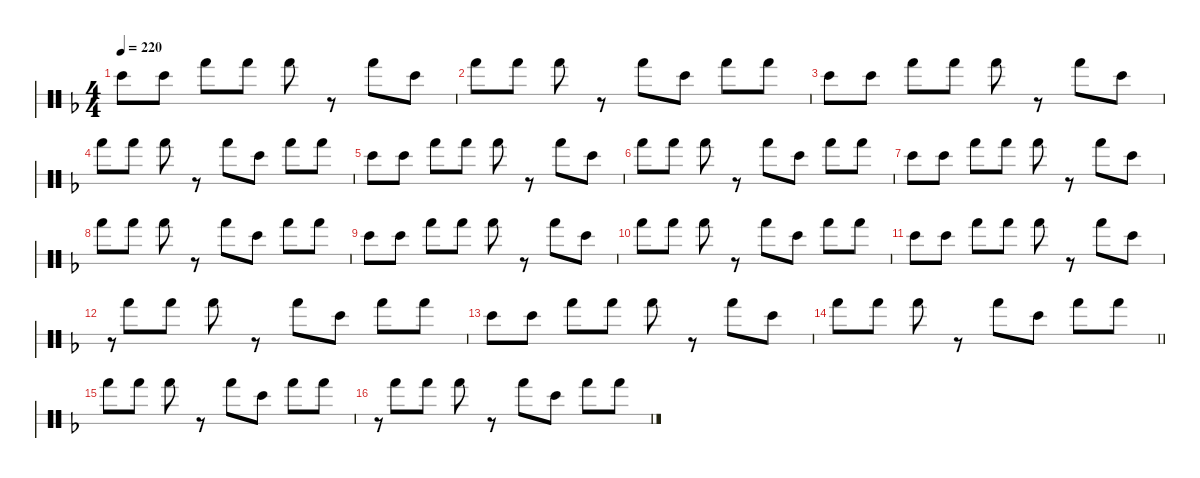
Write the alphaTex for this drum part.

\hideDynamics
\bracketExtendMode nobrackets
\singleTrackTrackNamePolicy hidden
\multiTrackTrackNamePolicy hidden
\firstSystemTrackNameMode fullname
\firstSystemTrackNameOrientation horizontal
\otherSystemsTrackNameOrientation horizontal
\track ("Bongos" "bngKit") {instrument percussion}
\staff {score 2}
\articulation defaults
\ts (4 4)
\tempo 220
\clef neutral
\ks dminor "Bongo High (hit)"{acc forcenatural}.8{dy mp} "Bongo High (hit)"{acc forcenatural}.8 "Hand (hit)"{acc forcenatural}.8{dy p} "Hand (hit)"{acc forcenatural}.8 "Hand (hit)"{acc forcenatural}.8{dy mp}
r.8 "Hand (hit)"{acc forcenatural}.8 "Bongo High (hit)"{acc forcenatural}.8 |
"Hand (hit)"{acc forcenatural}.8{dy p} "Hand (hit)"{acc forcenatural}.8 "Hand (hit)"{acc forcenatural}.8{dy mp} r.8 "Hand (hit)"{acc forcenatural}.8 "Bongo High (hit)"{acc forcenatural}.8 "Hand (hit)"{acc forcenatural}.8{dy p} "Hand (hit)"{acc forcenatural}.8 |
"Bongo High (hit)"{acc forcenatural}.8{dy mp} "Bongo High (hit)"{acc forcenatural}.8 "Hand (hit)"{acc forcenatural}.8{dy p} "Hand (hit)"{acc forcenatural}.8 "Hand (hit)"{acc forcenatural}.8{dy mp} r.8 "Hand (hit)"{acc forcenatural}.8 "Bongo High (hit)"{acc forcenatural}.8 |
"Hand (hit)"{acc forcenatural}.8{dy p} "Hand (hit)"{acc forcenatural}.8 "Hand (hit)"{acc forcenatural}.8{dy mp} r.8 "Hand (hit)"{acc forcenatural}.8 "Bongo High (hit)"{acc forcenatural}.8 "Hand (hit)"{acc forcenatural}.8{dy p} "Hand (hit)"{acc forcenatural}.8 |
"Bongo High (hit)"{acc forcenatural}.8{dy mp} "Bongo High (hit)"{acc forcenatural}.8 "Hand (hit)"{acc forcenatural}.8{dy p} "Hand (hit)"{acc forcenatural}.8 "Hand (hit)"{acc forcenatural}.8{dy mp} r.8 "Hand (hit)"{acc forcenatural}.8 "Bongo High (hit)"{acc forcenatural}.8 |
"Hand (hit)"{acc forcenatural}.8{dy p} "Hand (hit)"{acc forcenatural}.8 "Hand (hit)"{acc forcenatural}.8{dy mp} r.8 "Hand (hit)"{acc forcenatural}.8 "Bongo High (hit)"{acc forcenatural}.8 "Hand (hit)"{acc forcenatural}.8{dy p} "Hand (hit)"{acc forcenatural}.8 |
"Bongo High (hit)"{acc forcenatural}.8{dy mp} "Bongo High (hit)"{acc forcenatural}.8 "Hand (hit)"{acc forcenatural}.8{dy p} "Hand (hit)"{acc forcenatural}.8 "Hand (hit)"{acc forcenatural}.8{dy mp} r.8 "Hand (hit)"{acc forcenatural}.8 "Bongo High (hit)"{acc forcenatural}.8 |
"Hand (hit)"{acc forcenatural}.8{dy p} "Hand (hit)"{acc forcenatural}.8 "Hand (hit)"{acc forcenatural}.8{dy mp} r.8 "Hand (hit)"{acc forcenatural}.8 "Bongo High (hit)"{acc forcenatural}.8 "Hand (hit)"{acc forcenatural}.8{dy p} "Hand (hit)"{acc forcenatural}.8 |
"Bongo High (hit)"{acc forcenatural}.8{dy mp} "Bongo High (hit)"{acc forcenatural}.8 "Hand (hit)"{acc forcenatural}.8{dy p} "Hand (hit)"{acc forcenatural}.8 "Hand (hit)"{acc forcenatural}.8{dy mp} r.8 "Hand (hit)"{acc forcenatural}.8 "Bongo High (hit)"{acc forcenatural}.8 |
"Hand (hit)"{acc forcenatural}.8{dy p} "Hand (hit)"{acc forcenatural}.8 "Hand (hit)"{acc forcenatural}.8{dy mp} r.8 "Hand (hit)"{acc forcenatural}.8 "Bongo High (hit)"{acc forcenatural}.8 "Hand (hit)"{acc forcenatural}.8{dy p} "Hand (hit)"{acc forcenatural}.8 |
"Bongo High (hit)"{acc forcenatural}.8{dy mp} "Bongo High (hit)"{acc forcenatural}.8 "Hand (hit)"{acc forcenatural}.8{dy p} "Hand (hit)"{acc forcenatural}.8 "Hand (hit)"{acc forcenatural}.8{dy mp} r.8 "Hand (hit)"{acc forcenatural}.8 "Bongo High (hit)"{acc forcenatural}.8 |
r.8{gr} "Hand (hit)"{acc forcenatural}.8{dy p} "Hand (hit)"{acc forcenatural}.8 "Hand (hit)"{acc forcenatural}.8{dy mp} r.8 "Hand (hit)"{acc forcenatural}.8 "Bongo High (hit)"{acc forcenatural}.8 "Hand (hit)"{acc forcenatural}.8{dy p} "Hand (hit)"{acc forcenatural}.8 |
"Bongo High (hit)"{acc forcenatural}.8{dy mp} "Bongo High (hit)"{acc forcenatural}.8 "Hand (hit)"{acc forcenatural}.8{dy p} "Hand (hit)"{acc forcenatural}.8 "Hand (hit)"{acc forcenatural}.8{dy mp} r.8 "Hand (hit)"{acc forcenatural}.8 "Bongo High (hit)"{acc forcenatural}.8 |
\barLineRight lightlight "Hand (hit)"{acc forcenatural}.8{dy p} "Hand (hit)"{acc forcenatural}.8 "Hand (hit)"{acc forcenatural}.8{dy mp}
r.8 "Hand (hit)"{acc forcenatural}.8 "Bongo High (hit)"{acc forcenatural}.8 "Hand (hit)"{acc forcenatural}.8{dy p} "Hand (hit)"{acc forcenatural}.8 |
"Hand (hit)"{acc forcenatural}.8 "Hand (hit)"{acc forcenatural}.8 "Hand (hit)"{acc forcenatural}.8{dy mp} r.8 "Hand (hit)"{acc forcenatural}.8 "Bongo High (hit)"{acc forcenatural}.8 "Hand (hit)"{acc forcenatural}.8 "Hand (hit)"{acc forcenatural}.8{dy p} |
r.8{gr} "Hand (hit)"{acc forcenatural}.8 "Hand (hit)"{acc forcenatural}.8 "Hand (hit)"{acc forcenatural}.8{dy mp} r.8 "Hand (hit)"{acc forcenatural}.8 "Bongo High (hit)"{acc forcenatural}.8 "Hand (hit)"{acc forcenatural}.8 "Hand (hit)"{acc forcenatural}.8{dy p}
